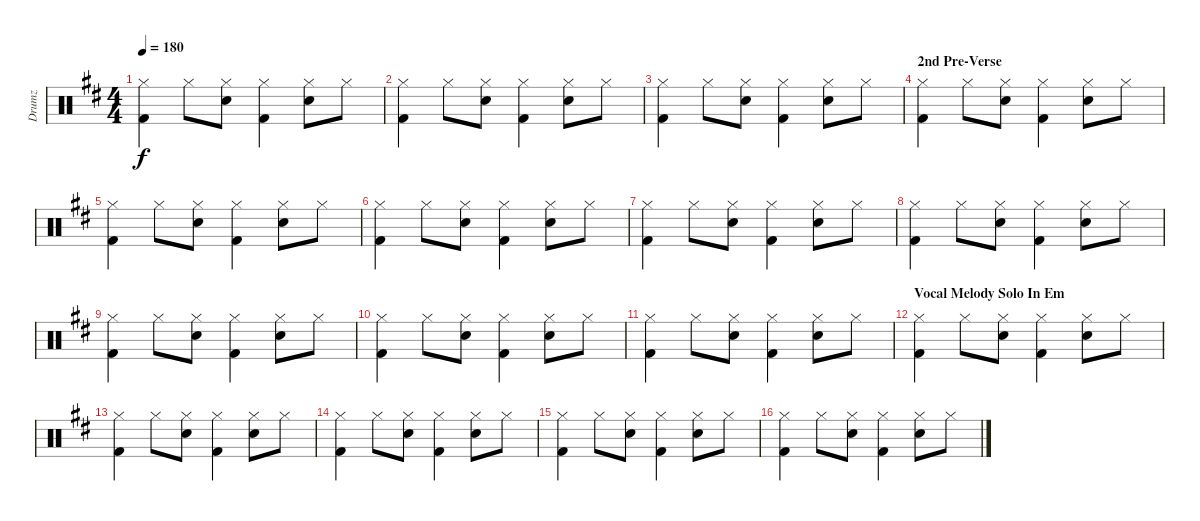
\track ("Drumz" "Drumz") {instrument percussion}
\staff {score}
\articulation defaults
\ts (4 4)
\tempo 180
\clef neutral
\ks d
("Hi-Hat (closed)" "Kick (hit) 2").4{dy f} "Hi-Hat (closed)".8 ("Hi-Hat (closed)" "Snare (hit) 2").8 ("Hi-Hat (closed)" "Kick (hit) 2").4 ("Hi-Hat (closed)" "Snare (hit) 2").8 "Hi-Hat (closed)".8 |
("Hi-Hat (closed)" "Kick (hit) 2").4 "Hi-Hat (closed)".8 ("Hi-Hat (closed)" "Snare (hit) 2").8 ("Hi-Hat (closed)" "Kick (hit) 2").4 ("Hi-Hat (closed)" "Snare (hit) 2").8 "Hi-Hat (closed)".8 |
("Hi-Hat (closed)" "Kick (hit) 2").4 "Hi-Hat (closed)".8 ("Hi-Hat (closed)" "Snare (hit) 2").8 ("Hi-Hat (closed)" "Kick (hit) 2").4 ("Hi-Hat (closed)" "Snare (hit) 2").8 "Hi-Hat (closed)".8 |
\section ("" "2nd Pre-Verse")
("Hi-Hat (closed)" "Kick (hit) 2").4 "Hi-Hat (closed)".8 ("Hi-Hat (closed)" "Snare (hit) 2").8 ("Hi-Hat (closed)" "Kick (hit) 2").4 ("Hi-Hat (closed)" "Snare (hit) 2").8 "Hi-Hat (closed)".8 |
("Hi-Hat (closed)" "Kick (hit) 2").4 "Hi-Hat (closed)".8 ("Hi-Hat (closed)" "Snare (hit) 2").8 ("Hi-Hat (closed)" "Kick (hit) 2").4 ("Hi-Hat (closed)" "Snare (hit) 2").8 "Hi-Hat (closed)".8 |
("Hi-Hat (closed)" "Kick (hit) 2").4 "Hi-Hat (closed)".8 ("Hi-Hat (closed)" "Snare (hit) 2").8 ("Hi-Hat (closed)" "Kick (hit) 2").4 ("Hi-Hat (closed)" "Snare (hit) 2").8 "Hi-Hat (closed)".8 |
("Hi-Hat (closed)" "Kick (hit) 2").4 "Hi-Hat (closed)".8 ("Hi-Hat (closed)" "Snare (hit) 2").8 ("Hi-Hat (closed)" "Kick (hit) 2").4 ("Hi-Hat (closed)" "Snare (hit) 2").8 "Hi-Hat (closed)".8 |
("Hi-Hat (closed)" "Kick (hit) 2").4 "Hi-Hat (closed)".8 ("Hi-Hat (closed)" "Snare (hit) 2").8 ("Hi-Hat (closed)" "Kick (hit) 2").4 ("Hi-Hat (closed)" "Snare (hit) 2").8 "Hi-Hat (closed)".8 |
("Hi-Hat (closed)" "Kick (hit) 2").4 "Hi-Hat (closed)".8 ("Hi-Hat (closed)" "Snare (hit) 2").8 ("Hi-Hat (closed)" "Kick (hit) 2").4 ("Hi-Hat (closed)" "Snare (hit) 2").8 "Hi-Hat (closed)".8 |
("Hi-Hat (closed)" "Kick (hit) 2").4 "Hi-Hat (closed)".8 ("Hi-Hat (closed)" "Snare (hit) 2").8 ("Hi-Hat (closed)" "Kick (hit) 2").4 ("Hi-Hat (closed)" "Snare (hit) 2").8 "Hi-Hat (closed)".8 |
("Hi-Hat (closed)" "Kick (hit) 2").4 "Hi-Hat (closed)".8 ("Hi-Hat (closed)" "Snare (hit) 2").8 ("Hi-Hat (closed)" "Kick (hit) 2").4 ("Hi-Hat (closed)" "Snare (hit) 2").8 "Hi-Hat (closed)".8 |
\section ("" "Vocal Melody Solo In Em")
("Hi-Hat (closed)" "Kick (hit) 2").4 "Hi-Hat (closed)".8 ("Hi-Hat (closed)" "Snare (hit) 2").8 ("Hi-Hat (closed)" "Kick (hit) 2").4 ("Hi-Hat (closed)" "Snare (hit) 2").8 "Hi-Hat (closed)".8 |
("Hi-Hat (closed)" "Kick (hit) 2").4 "Hi-Hat (closed)".8 ("Hi-Hat (closed)" "Snare (hit) 2").8 ("Hi-Hat (closed)" "Kick (hit) 2").4 ("Hi-Hat (closed)" "Snare (hit) 2").8 "Hi-Hat (closed)".8 |
("Hi-Hat (closed)" "Kick (hit) 2").4 "Hi-Hat (closed)".8 ("Hi-Hat (closed)" "Snare (hit) 2").8 ("Hi-Hat (closed)" "Kick (hit) 2").4 ("Hi-Hat (closed)" "Snare (hit) 2").8 "Hi-Hat (closed)".8 |
("Hi-Hat (closed)" "Kick (hit) 2").4 "Hi-Hat (closed)".8 ("Hi-Hat (closed)" "Snare (hit) 2").8 ("Hi-Hat (closed)" "Kick (hit) 2").4 ("Hi-Hat (closed)" "Snare (hit) 2").8 "Hi-Hat (closed)".8 |
("Hi-Hat (closed)" "Kick (hit) 2").4 "Hi-Hat (closed)".8 ("Hi-Hat (closed)" "Snare (hit) 2").8 ("Hi-Hat (closed)" "Kick (hit) 2").4 ("Hi-Hat (closed)" "Snare (hit) 2").8 "Hi-Hat (closed)".8
